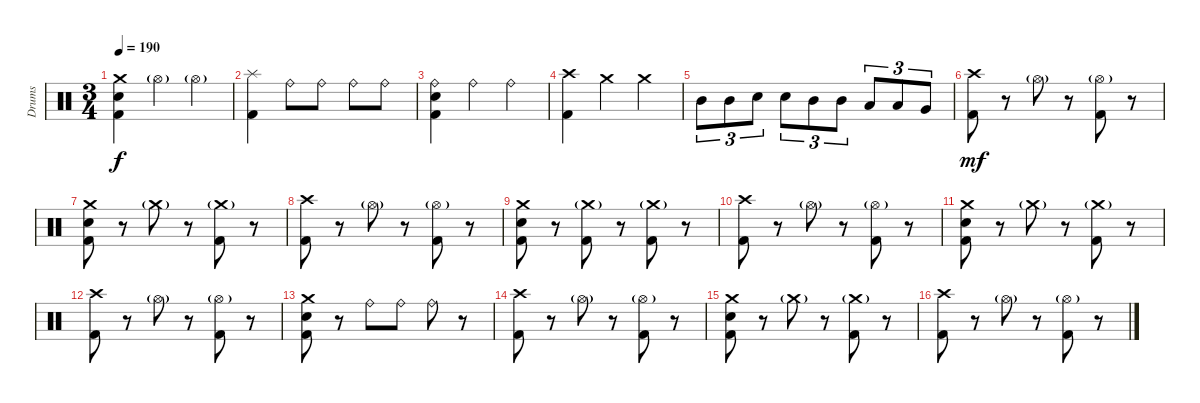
\track ("Drums" "Drums") {instrument percussion}
\staff {score}
\articulation defaults
\ts (3 4)
\tempo 190
\clef neutral
\ks c
("Crash medium (hit)" "Kick (hit) 2" "Snare (hit) 2").4{dy f} "Hi-Hat (open)"{g}.4 "Hi-Hat (open)"{g}.4 |
("Splash (hit)" "Kick (hit) 2").4 "Ride (bell)".8 "Ride (bell)".8 "Ride (bell)".8 "Ride (bell)".8 |
("Ride (bell)" "Kick (hit) 2" "Snare (hit) 2").4 "Ride (bell)".4 "Ride (bell)".4 |
("Crash high (hit)" "Kick (hit) 2").4 "Crash medium (hit)".4 "Crash medium (hit)".4 |
"Mid Tom (hit)".8{tu (3 2)} "Mid Tom (hit)".8{tu (3 2)} "Snare (hit) 2".8{tu (3 2)} "Snare (hit) 2".8{tu (3 2)} "Mid Tom (hit)".8{tu (3 2)} "Mid Tom (hit)".8{tu (3 2)} "Low Tom (hit)".8{tu (3 2)} "Low Tom (hit)".8{tu (3 2)} "Very Low Tom (hit)".8{tu (3 2)} |
("Crash high (hit)" "Kick (hit) 2").8{dy mf} r.8 "Hi-Hat (open)"{g}.8 r.8 ("Hi-Hat (open)"{g} "Kick (hit) 2").8 r.8 |
("Crash medium (hit)" "Kick (hit) 2" "Snare (hit) 2").8 r.8 "Crash medium (hit)"{g}.8 r.8 ("Crash medium (hit)"{g} "Kick (hit) 2").8 r.8 |
("Crash high (hit)" "Kick (hit) 2").8 r.8 "Hi-Hat (open)"{g}.8 r.8 ("Hi-Hat (open)"{g} "Kick (hit) 2").8 r.8 |
("Crash medium (hit)" "Kick (hit) 2" "Snare (hit) 2").8 r.8 ("Crash medium (hit)"{g} "Kick (hit) 2").8 r.8 ("Crash medium (hit)"{g} "Kick (hit) 2").8 r.8 |
("Crash high (hit)" "Kick (hit) 2").8 r.8 "Hi-Hat (open)"{g}.8 r.8 ("Hi-Hat (open)"{g} "Kick (hit) 2").8 r.8 |
("Crash medium (hit)" "Kick (hit) 2" "Snare (hit) 2").8 r.8 "Crash medium (hit)"{g}.8 r.8 ("Crash medium (hit)"{g} "Kick (hit) 2").8 r.8 |
("Crash high (hit)" "Kick (hit) 2").8 r.8 "Hi-Hat (open)"{g}.8 r.8 ("Hi-Hat (open)"{g} "Kick (hit) 2").8 r.8 |
("Crash medium (hit)" "Kick (hit) 2" "Snare (hit) 2").8 r.8 "Ride (bell)".8 "Ride (bell)".8 "Ride (bell)".8 r.8 |
("Crash high (hit)" "Kick (hit) 2").8 r.8 "Hi-Hat (open)"{g}.8 r.8 ("Hi-Hat (open)"{g} "Kick (hit) 2").8 r.8 |
("Crash medium (hit)" "Kick (hit) 2" "Snare (hit) 2").8 r.8 "Crash medium (hit)"{g}.8 r.8 ("Crash medium (hit)"{g} "Kick (hit) 2").8 r.8 |
("Crash high (hit)" "Kick (hit) 2").8 r.8 "Hi-Hat (open)"{g}.8 r.8 ("Hi-Hat (open)"{g} "Kick (hit) 2").8 r.8
